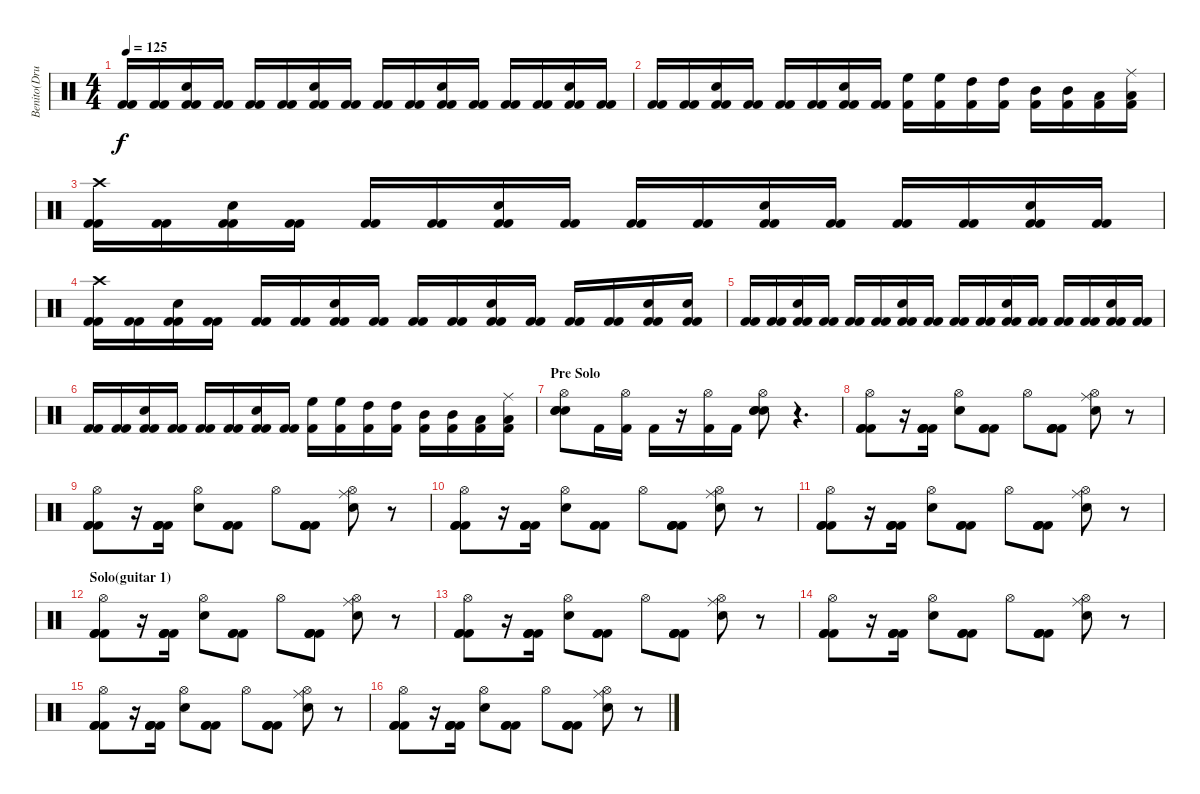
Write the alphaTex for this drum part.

\track ("Benito(Drums)" "Benito(Dru") {instrument percussion}
\staff {score}
\articulation defaults
\ts (4 4)
\tempo 125
\clef neutral
\ks c
("Kick (hit) 2" "Kick (hit) 2").16{dy f} ("Kick (hit) 2" "Kick (hit) 2").16 ("Kick (hit) 2" "Kick (hit) 2" "Electric Snare (hit)").16 ("Kick (hit) 2" "Kick (hit) 2").16 ("Kick (hit) 2" "Kick (hit) 2").16 ("Kick (hit) 2" "Kick (hit) 2").16 ("Kick (hit) 2" "Kick (hit) 2" "Electric Snare (hit)").16 ("Kick (hit) 2" "Kick (hit) 2").16 ("Kick (hit) 2" "Kick (hit) 2").16 ("Kick (hit) 2" "Kick (hit) 2").16 ("Kick (hit) 2" "Kick (hit) 2" "Electric Snare (hit)").16 ("Kick (hit) 2" "Kick (hit) 2").16 ("Kick (hit) 2" "Kick (hit) 2").16 ("Kick (hit) 2" "Kick (hit) 2").16 ("Kick (hit) 2" "Kick (hit) 2" "Electric Snare (hit)").16 ("Kick (hit) 2" "Kick (hit) 2").16 |
("Kick (hit) 2" "Kick (hit) 2").16 ("Kick (hit) 2" "Kick (hit) 2").16 ("Kick (hit) 2" "Kick (hit) 2" "Electric Snare (hit)").16 ("Kick (hit) 2" "Kick (hit) 2").16 ("Kick (hit) 2" "Kick (hit) 2").16 ("Kick (hit) 2" "Kick (hit) 2").16 ("Kick (hit) 2" "Kick (hit) 2" "Electric Snare (hit)").16 ("Kick (hit) 2" "Kick (hit) 2").16 ("Kick (hit) 2" "High Floor Tom (hit)").16 ("Kick (hit) 2" "High Floor Tom (hit)").16 ("Kick (hit) 2" "High Tom (hit)").16 ("Kick (hit) 2" "High Tom (hit)").16 ("Kick (hit) 2" "Mid Tom (hit)").16 ("Kick (hit) 2" "Mid Tom (hit)").16 ("Kick (hit) 2" "Low Tom (hit)").16 ("Kick (hit) 2" "Low Tom (hit)" "Ride (middle)").16 |
("Kick (hit) 2" "Kick (hit) 2" "Crash high (hit)").16 ("Kick (hit) 2" "Kick (hit) 2").16 ("Kick (hit) 2" "Kick (hit) 2" "Electric Snare (hit)").16 ("Kick (hit) 2" "Kick (hit) 2").16 ("Kick (hit) 2" "Kick (hit) 2").16 ("Kick (hit) 2" "Kick (hit) 2").16 ("Kick (hit) 2" "Kick (hit) 2" "Electric Snare (hit)").16 ("Kick (hit) 2" "Kick (hit) 2").16 ("Kick (hit) 2" "Kick (hit) 2").16 ("Kick (hit) 2" "Kick (hit) 2").16 ("Kick (hit) 2" "Kick (hit) 2" "Electric Snare (hit)").16 ("Kick (hit) 2" "Kick (hit) 2").16 ("Kick (hit) 2" "Kick (hit) 2").16 ("Kick (hit) 2" "Kick (hit) 2").16 ("Kick (hit) 2" "Kick (hit) 2" "Electric Snare (hit)").16 ("Kick (hit) 2" "Kick (hit) 2").16 |
("Kick (hit) 2" "Kick (hit) 2" "Crash high (hit)").16 ("Kick (hit) 2" "Kick (hit) 2").16 ("Kick (hit) 2" "Kick (hit) 2" "Electric Snare (hit)").16 ("Kick (hit) 2" "Kick (hit) 2").16 ("Kick (hit) 2" "Kick (hit) 2").16 ("Kick (hit) 2" "Kick (hit) 2").16 ("Kick (hit) 2" "Kick (hit) 2" "Electric Snare (hit)").16 ("Kick (hit) 2" "Kick (hit) 2").16 ("Kick (hit) 2" "Kick (hit) 2").16 ("Kick (hit) 2" "Kick (hit) 2").16 ("Kick (hit) 2" "Kick (hit) 2" "Electric Snare (hit)").16 ("Kick (hit) 2" "Kick (hit) 2").16 ("Kick (hit) 2" "Kick (hit) 2").16 ("Kick (hit) 2" "Kick (hit) 2").16 ("Kick (hit) 2" "Kick (hit) 2" "Electric Snare (hit)").16 ("Kick (hit) 2" "Kick (hit) 2" "Electric Snare (hit)").16 |
("Kick (hit) 2" "Kick (hit) 2").16 ("Kick (hit) 2" "Kick (hit) 2").16 ("Kick (hit) 2" "Kick (hit) 2" "Electric Snare (hit)").16 ("Kick (hit) 2" "Kick (hit) 2").16 ("Kick (hit) 2" "Kick (hit) 2").16 ("Kick (hit) 2" "Kick (hit) 2").16 ("Kick (hit) 2" "Kick (hit) 2" "Electric Snare (hit)").16 ("Kick (hit) 2" "Kick (hit) 2").16 ("Kick (hit) 2" "Kick (hit) 2").16 ("Kick (hit) 2" "Kick (hit) 2").16 ("Kick (hit) 2" "Kick (hit) 2" "Electric Snare (hit)").16 ("Kick (hit) 2" "Kick (hit) 2").16 ("Kick (hit) 2" "Kick (hit) 2").16 ("Kick (hit) 2" "Kick (hit) 2").16 ("Kick (hit) 2" "Kick (hit) 2" "Electric Snare (hit)").16 ("Kick (hit) 2" "Kick (hit) 2").16 |
("Kick (hit) 2" "Kick (hit) 2").16 ("Kick (hit) 2" "Kick (hit) 2").16 ("Kick (hit) 2" "Kick (hit) 2" "Electric Snare (hit)").16 ("Kick (hit) 2" "Kick (hit) 2").16 ("Kick (hit) 2" "Kick (hit) 2").16 ("Kick (hit) 2" "Kick (hit) 2").16 ("Kick (hit) 2" "Kick (hit) 2" "Electric Snare (hit)").16 ("Kick (hit) 2" "Kick (hit) 2").16 ("Kick (hit) 2" "High Floor Tom (hit)").16 ("Kick (hit) 2" "High Floor Tom (hit)").16 ("Kick (hit) 2" "High Tom (hit)").16 ("Kick (hit) 2" "High Tom (hit)").16 ("Kick (hit) 2" "Mid Tom (hit)").16 ("Kick (hit) 2" "Mid Tom (hit)").16 ("Kick (hit) 2" "Low Tom (hit)").16 ("Kick (hit) 2" "Low Tom (hit)" "Ride (middle)").16 |
\section ("" "Pre Solo")
("Electric Snare (hit)" "Electric Snare (hit)" "Electric Snare (hit)" "Hi-Hat (open)").8{volume 16} "Kick (hit) 2".16 ("Kick (hit) 2" "Hi-Hat (open)").16 "Kick (hit) 2".16 r.16 ("Kick (hit) 2" "Hi-Hat (open)").16 "Kick (hit) 2".16 ("Electric Snare (hit)" "Electric Snare (hit)" "Electric Snare (hit)" "Hi-Hat (open)").8 r.4{d} |
("Kick (hit) 2" "Hi-Hat (open)" "Kick (hit) 2" "Kick (hit) 2").8 r.16 ("Kick (hit) 2" "Kick (hit) 2" "Kick (hit) 2" "Kick (hit) 2").16 ("Electric Snare (hit)" "Hi-Hat (open)").8 ("Kick (hit) 2" "Kick (hit) 2" "Kick (hit) 2").8 "Hi-Hat (open)".8 ("Kick (hit) 2" "Kick (hit) 2" "Kick (hit) 2" "Kick (hit) 2").8 ("Electric Snare (hit)" "Ride (middle)" "Hi-Hat (open)").8 r.8 |
("Kick (hit) 2" "Hi-Hat (open)" "Kick (hit) 2" "Kick (hit) 2").8 r.16 ("Kick (hit) 2" "Kick (hit) 2" "Kick (hit) 2" "Kick (hit) 2").16 ("Electric Snare (hit)" "Hi-Hat (open)").8 ("Kick (hit) 2" "Kick (hit) 2" "Kick (hit) 2").8 "Hi-Hat (open)".8 ("Kick (hit) 2" "Kick (hit) 2" "Kick (hit) 2" "Kick (hit) 2").8 ("Electric Snare (hit)" "Ride (middle)" "Hi-Hat (open)").8 r.8 |
("Kick (hit) 2" "Hi-Hat (open)" "Kick (hit) 2" "Kick (hit) 2").8 r.16 ("Kick (hit) 2" "Kick (hit) 2" "Kick (hit) 2" "Kick (hit) 2").16 ("Electric Snare (hit)" "Hi-Hat (open)").8 ("Kick (hit) 2" "Kick (hit) 2" "Kick (hit) 2").8 "Hi-Hat (open)".8 ("Kick (hit) 2" "Kick (hit) 2" "Kick (hit) 2" "Kick (hit) 2").8 ("Electric Snare (hit)" "Ride (middle)" "Hi-Hat (open)").8 r.8 |
("Kick (hit) 2" "Hi-Hat (open)" "Kick (hit) 2" "Kick (hit) 2").8 r.16 ("Kick (hit) 2" "Kick (hit) 2" "Kick (hit) 2" "Kick (hit) 2").16 ("Electric Snare (hit)" "Hi-Hat (open)").8 ("Kick (hit) 2" "Kick (hit) 2" "Kick (hit) 2").8 "Hi-Hat (open)".8 ("Kick (hit) 2" "Kick (hit) 2" "Kick (hit) 2" "Kick (hit) 2").8 ("Electric Snare (hit)" "Ride (middle)" "Hi-Hat (open)").8 r.8 |
\section ("" "Solo(guitar 1)")
("Kick (hit) 2" "Hi-Hat (open)" "Kick (hit) 2" "Kick (hit) 2").8 r.16 ("Kick (hit) 2" "Kick (hit) 2" "Kick (hit) 2" "Kick (hit) 2").16 ("Electric Snare (hit)" "Hi-Hat (open)").8 ("Kick (hit) 2" "Kick (hit) 2" "Kick (hit) 2").8 "Hi-Hat (open)".8 ("Kick (hit) 2" "Kick (hit) 2" "Kick (hit) 2" "Kick (hit) 2").8 ("Electric Snare (hit)" "Ride (middle)" "Hi-Hat (open)").8 r.8 |
("Kick (hit) 2" "Hi-Hat (open)" "Kick (hit) 2" "Kick (hit) 2").8 r.16 ("Kick (hit) 2" "Kick (hit) 2" "Kick (hit) 2" "Kick (hit) 2").16 ("Electric Snare (hit)" "Hi-Hat (open)").8 ("Kick (hit) 2" "Kick (hit) 2" "Kick (hit) 2").8 "Hi-Hat (open)".8 ("Kick (hit) 2" "Kick (hit) 2" "Kick (hit) 2" "Kick (hit) 2").8 ("Electric Snare (hit)" "Ride (middle)" "Hi-Hat (open)").8 r.8 |
("Kick (hit) 2" "Hi-Hat (open)" "Kick (hit) 2" "Kick (hit) 2").8 r.16 ("Kick (hit) 2" "Kick (hit) 2" "Kick (hit) 2" "Kick (hit) 2").16 ("Electric Snare (hit)" "Hi-Hat (open)").8 ("Kick (hit) 2" "Kick (hit) 2" "Kick (hit) 2").8 "Hi-Hat (open)".8 ("Kick (hit) 2" "Kick (hit) 2" "Kick (hit) 2" "Kick (hit) 2").8 ("Electric Snare (hit)" "Ride (middle)" "Hi-Hat (open)").8 r.8 |
("Kick (hit) 2" "Hi-Hat (open)" "Kick (hit) 2" "Kick (hit) 2").8 r.16 ("Kick (hit) 2" "Kick (hit) 2" "Kick (hit) 2" "Kick (hit) 2").16 ("Electric Snare (hit)" "Hi-Hat (open)").8 ("Kick (hit) 2" "Kick (hit) 2" "Kick (hit) 2").8 "Hi-Hat (open)".8 ("Kick (hit) 2" "Kick (hit) 2" "Kick (hit) 2" "Kick (hit) 2").8 ("Electric Snare (hit)" "Ride (middle)" "Hi-Hat (open)").8 r.8 |
("Kick (hit) 2" "Hi-Hat (open)" "Kick (hit) 2" "Kick (hit) 2").8 r.16 ("Kick (hit) 2" "Kick (hit) 2" "Kick (hit) 2" "Kick (hit) 2").16 ("Electric Snare (hit)" "Hi-Hat (open)").8 ("Kick (hit) 2" "Kick (hit) 2" "Kick (hit) 2").8 "Hi-Hat (open)".8 ("Kick (hit) 2" "Kick (hit) 2" "Kick (hit) 2" "Kick (hit) 2").8 ("Electric Snare (hit)" "Ride (middle)" "Hi-Hat (open)").8 r.8
